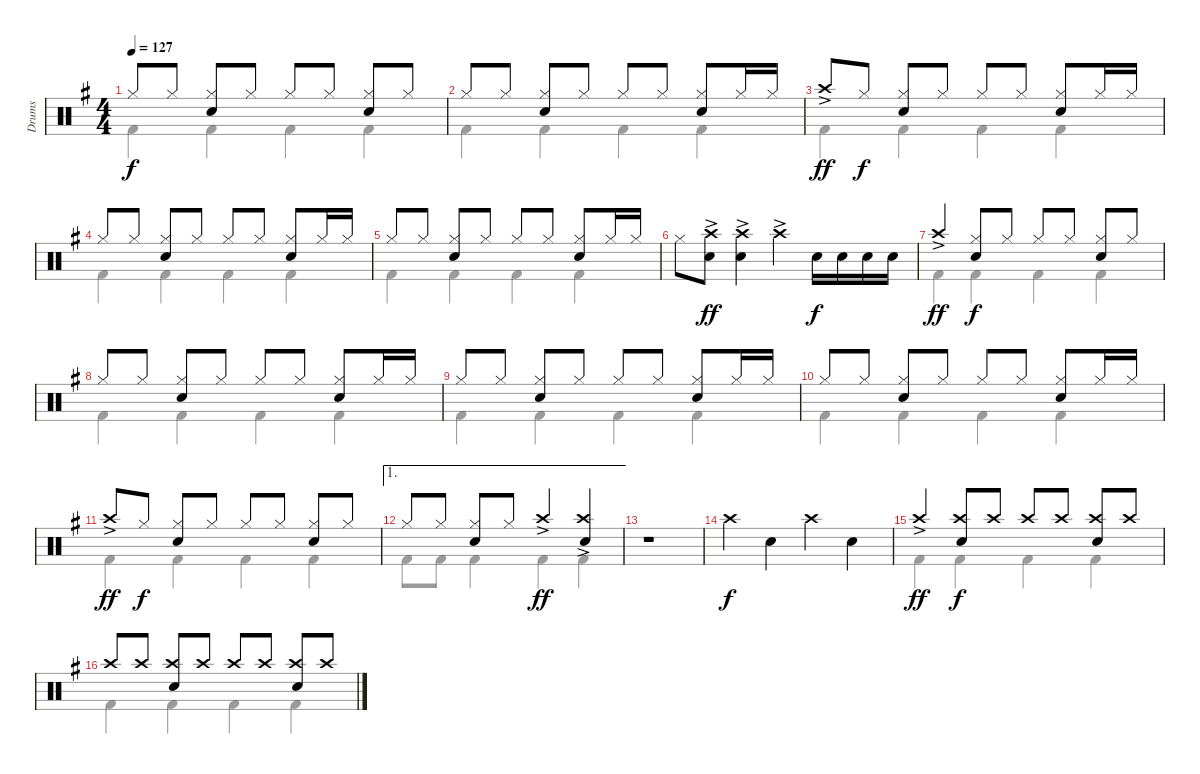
\track ("Drums" "Drums") {instrument percussion}
\staff {score}
\articulation defaults
\voice
\ts (4 4)
\tempo 127
\clef neutral
\ks g "Hi-Hat (closed)".8{dy f} "Hi-Hat (closed)".8
("Hi-Hat (closed)" "Snare (hit) 2").8 "Hi-Hat (closed)".8 "Hi-Hat (closed)".8 "Hi-Hat (closed)".8 ("Hi-Hat (closed)" "Snare (hit) 2").8 "Hi-Hat (closed)".8 |
"Hi-Hat (closed)".8 "Hi-Hat (closed)".8 ("Hi-Hat (closed)" "Snare (hit) 2").8 "Hi-Hat (closed)".8 "Hi-Hat (closed)".8 "Hi-Hat (closed)".8 ("Hi-Hat (closed)" "Snare (hit) 2").8 "Hi-Hat (closed)".16 "Hi-Hat (closed)".16 |
"Crash high (hit)"{ac}.8{dy ff} "Hi-Hat (closed)".8{dy f} ("Hi-Hat (closed)" "Snare (hit) 2").8 "Hi-Hat (closed)".8 "Hi-Hat (closed)".8 "Hi-Hat (closed)".8 ("Hi-Hat (closed)" "Snare (hit) 2").8 "Hi-Hat (closed)".16 "Hi-Hat (closed)".16 |
"Hi-Hat (closed)".8 "Hi-Hat (closed)".8 ("Hi-Hat (closed)" "Snare (hit) 2").8 "Hi-Hat (closed)".8 "Hi-Hat (closed)".8 "Hi-Hat (closed)".8 ("Hi-Hat (closed)" "Snare (hit) 2").8 "Hi-Hat (closed)".16 "Hi-Hat (closed)".16 |
"Hi-Hat (closed)".8 "Hi-Hat (closed)".8 ("Hi-Hat (closed)" "Snare (hit) 2").8 "Hi-Hat (closed)".8 "Hi-Hat (closed)".8 "Hi-Hat (closed)".8 ("Hi-Hat (closed)" "Snare (hit) 2").8 "Hi-Hat (closed)".16 "Hi-Hat (closed)".16 |
"Hi-Hat (closed)".8 ("Crash high (hit)"{ac} "Snare (hit) 2").8{dy ff} ("Crash high (hit)"{ac} "Snare (hit) 2").4 "Crash high (hit)"{ac}.4 "Snare (hit) 2".16{dy f} "Snare (hit) 2".16 "Snare (hit) 2".16 "Snare (hit) 2".16 |
"Crash high (hit)"{ac}.4{dy ff} ("Hi-Hat (closed)" "Snare (hit) 2").8{dy f} "Hi-Hat (closed)".8 "Hi-Hat (closed)".8 "Hi-Hat (closed)".8 ("Hi-Hat (closed)" "Snare (hit) 2").8 "Hi-Hat (closed)".8 |
"Hi-Hat (closed)".8 "Hi-Hat (closed)".8 ("Hi-Hat (closed)" "Snare (hit) 2").8 "Hi-Hat (closed)".8 "Hi-Hat (closed)".8 "Hi-Hat (closed)".8 ("Hi-Hat (closed)" "Snare (hit) 2").8 "Hi-Hat (closed)".16 "Hi-Hat (closed)".16 |
"Hi-Hat (closed)".8 "Hi-Hat (closed)".8 ("Hi-Hat (closed)" "Snare (hit) 2").8 "Hi-Hat (closed)".8 "Hi-Hat (closed)".8 "Hi-Hat (closed)".8 ("Hi-Hat (closed)" "Snare (hit) 2").8 "Hi-Hat (closed)".16 "Hi-Hat (closed)".16 |
"Hi-Hat (closed)".8 "Hi-Hat (closed)".8 ("Hi-Hat (closed)" "Snare (hit) 2").8 "Hi-Hat (closed)".8 "Hi-Hat (closed)".8 "Hi-Hat (closed)".8 ("Hi-Hat (closed)" "Snare (hit) 2").8 "Hi-Hat (closed)".16 "Hi-Hat (closed)".16 |
"Crash high (hit)"{ac}.8{dy ff} "Hi-Hat (closed)".8{dy f} ("Hi-Hat (closed)" "Snare (hit) 2").8 "Hi-Hat (closed)".8 "Hi-Hat (closed)".8 "Hi-Hat (closed)".8 ("Hi-Hat (closed)" "Snare (hit) 2").8 "Hi-Hat (closed)".8 |
\ae 1 "Hi-Hat (closed)".8 "Hi-Hat (closed)".8
("Hi-Hat (closed)" "Snare (hit) 2").8 "Hi-Hat (closed)".8 "Crash high (hit)"{ac}.4{dy ff} ("Crash high (hit)"{ac} "Snare (hit) 2").4 |
r.1 |
"Crash high (hit)".4{dy f} "Snare (hit) 2".4 "Crash high (hit)".4 "Snare (hit) 2".4 |
"Crash high (hit)"{ac}.4{dy ff} ("Crash high (hit)" "Snare (hit) 2").8{dy f} "Crash high (hit)".8 "Crash high (hit)".8 "Crash high (hit)".8 ("Crash high (hit)" "Snare (hit) 2").8 "Crash high (hit)".8 |
"Crash high (hit)".8 "Crash high (hit)".8 ("Crash high (hit)" "Snare (hit) 2").8 "Crash high (hit)".8 "Crash high (hit)".8 "Crash high (hit)".8 ("Crash high (hit)" "Snare (hit) 2").8 "Crash high (hit)".8
\voice
\clef neutral
\ottava regular
\simile none
\ks g "Kick (hit) 2".4{dy f} "Kick (hit) 2".4 "Kick (hit) 2".4 "Kick (hit) 2".4
|
"Kick (hit) 2".4 "Kick (hit) 2".4 "Kick (hit) 2".4 "Kick (hit) 2".4 |
"Kick (hit) 2".4 "Kick (hit) 2".4 "Kick (hit) 2".4 "Kick (hit) 2".4 |
"Kick (hit) 2".4 "Kick (hit) 2".4 "Kick (hit) 2".4 "Kick (hit) 2".4 |
"Kick (hit) 2".4 "Kick (hit) 2".4 "Kick (hit) 2".4 "Kick (hit) 2".4 |
|
"Kick (hit) 2".4 "Kick (hit) 2".4 "Kick (hit) 2".4 "Kick (hit) 2".4 |
"Kick (hit) 2".4 "Kick (hit) 2".4 "Kick (hit) 2".4 "Kick (hit) 2".4 |
"Kick (hit) 2".4 "Kick (hit) 2".4 "Kick (hit) 2".4 "Kick (hit) 2".4 |
"Kick (hit) 2".4 "Kick (hit) 2".4 "Kick (hit) 2".4 "Kick (hit) 2".4 |
"Kick (hit) 2".4 "Kick (hit) 2".4 "Kick (hit) 2".4 "Kick (hit) 2".4 |
"Kick (hit) 2".8 "Kick (hit) 2".8 "Kick (hit) 2".4 "Kick (hit) 2".4 "Kick (hit) 2".4 |
|
|
"Kick (hit) 2".4 "Kick (hit) 2".4 "Kick (hit) 2".4 "Kick (hit) 2".4 |
"Kick (hit) 2".4 "Kick (hit) 2".4 "Kick (hit) 2".4 "Kick (hit) 2".4
